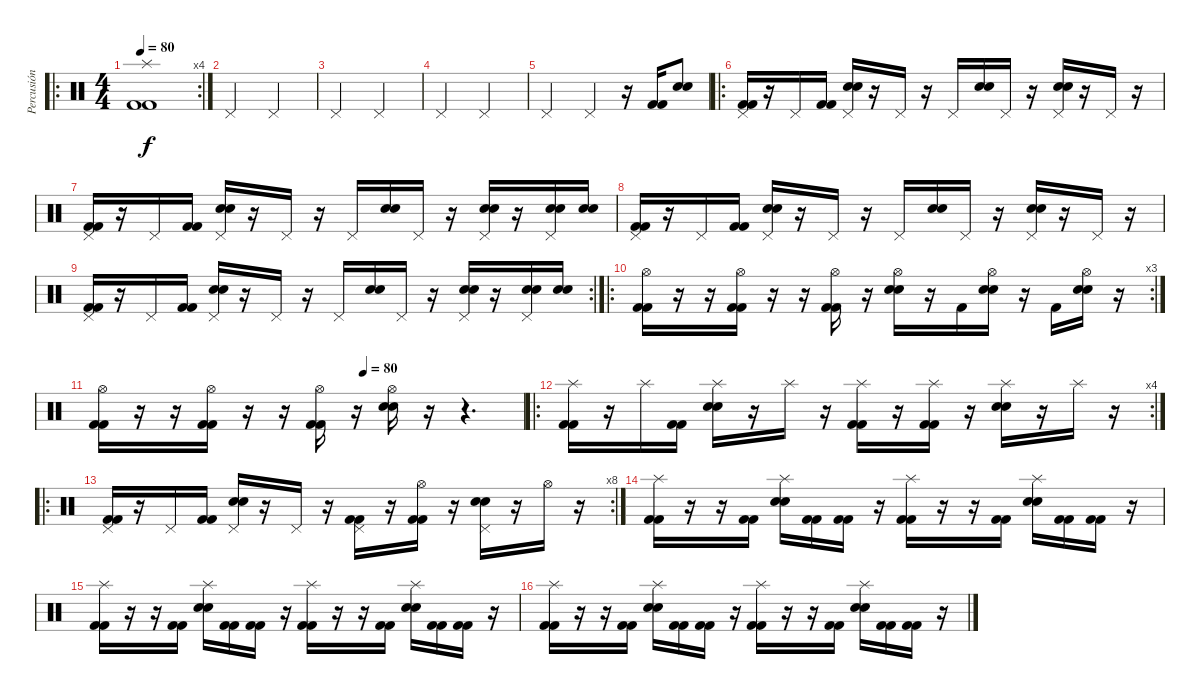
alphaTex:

\track ("Percusión" "Percusión") {instrument percussion}
\staff {score}
\articulation defaults
\ro
\rc 4
\ts (4 4)
\tempo 80
\tempo 115
\tempo 80
\clef neutral
\ks c
("Splash (hit)" "Kick (hit) 2" "Kick (hit) 2").1{dy f} |
"Pedal Hi-Hat (hit)".2 "Pedal Hi-Hat (hit)".2 |
"Pedal Hi-Hat (hit)".2 "Pedal Hi-Hat (hit)".2 |
"Pedal Hi-Hat (hit)".2 "Pedal Hi-Hat (hit)".2 |
"Pedal Hi-Hat (hit)".2 "Pedal Hi-Hat (hit)".4 r.16 ("Kick (hit) 2" "Kick (hit) 2").16 ("Electric Snare (hit)" "Electric Snare (hit)").8 |
\ro
("Pedal Hi-Hat (hit)" "Kick (hit) 2" "Kick (hit) 2").16 r.16 "Pedal Hi-Hat (hit)".16 ("Kick (hit) 2" "Kick (hit) 2").16 ("Pedal Hi-Hat (hit)" "Electric Snare (hit)" "Electric Snare (hit)").16 r.16 "Pedal Hi-Hat (hit)".16 r.16 "Pedal Hi-Hat (hit)".16 ("Electric Snare (hit)" "Electric Snare (hit)").16 "Pedal Hi-Hat (hit)".16 r.16 ("Pedal Hi-Hat (hit)" "Electric Snare (hit)" "Electric Snare (hit)").16 r.16 "Pedal Hi-Hat (hit)".16 r.16 |
("Pedal Hi-Hat (hit)" "Kick (hit) 2" "Kick (hit) 2").16 r.16 "Pedal Hi-Hat (hit)".16 ("Kick (hit) 2" "Kick (hit) 2").16 ("Pedal Hi-Hat (hit)" "Electric Snare (hit)" "Electric Snare (hit)").16 r.16 "Pedal Hi-Hat (hit)".16 r.16 "Pedal Hi-Hat (hit)".16 ("Electric Snare (hit)" "Electric Snare (hit)").16 "Pedal Hi-Hat (hit)".16 r.16 ("Pedal Hi-Hat (hit)" "Electric Snare (hit)" "Electric Snare (hit)").16 r.16 ("Pedal Hi-Hat (hit)" "Electric Snare (hit)" "Electric Snare (hit)").16 ("Electric Snare (hit)" "Electric Snare (hit)").16 |
("Pedal Hi-Hat (hit)" "Kick (hit) 2" "Kick (hit) 2").16 r.16 "Pedal Hi-Hat (hit)".16 ("Kick (hit) 2" "Kick (hit) 2").16 ("Pedal Hi-Hat (hit)" "Electric Snare (hit)" "Electric Snare (hit)").16 r.16 "Pedal Hi-Hat (hit)".16 r.16 "Pedal Hi-Hat (hit)".16 ("Electric Snare (hit)" "Electric Snare (hit)").16 "Pedal Hi-Hat (hit)".16 r.16 ("Pedal Hi-Hat (hit)" "Electric Snare (hit)" "Electric Snare (hit)").16 r.16 "Pedal Hi-Hat (hit)".16 r.16 |
\rc 2
("Pedal Hi-Hat (hit)" "Kick (hit) 2" "Kick (hit) 2").16 r.16 "Pedal Hi-Hat (hit)".16 ("Kick (hit) 2" "Kick (hit) 2").16 ("Pedal Hi-Hat (hit)" "Electric Snare (hit)" "Electric Snare (hit)").16 r.16 "Pedal Hi-Hat (hit)".16 r.16 "Pedal Hi-Hat (hit)".16 ("Electric Snare (hit)" "Electric Snare (hit)").16 "Pedal Hi-Hat (hit)".16 r.16 ("Pedal Hi-Hat (hit)" "Electric Snare (hit)" "Electric Snare (hit)").16 r.16 ("Pedal Hi-Hat (hit)" "Electric Snare (hit)" "Electric Snare (hit)").16 ("Electric Snare (hit)" "Electric Snare (hit)").16 |
\ro
\rc 3
("Hi-Hat (open)" "Kick (hit) 2" "Kick (hit) 2").16 r.16 r.16 ("Hi-Hat (open)" "Kick (hit) 2" "Kick (hit) 2").16 r.16 r.16 ("Hi-Hat (open)" "Kick (hit) 2" "Kick (hit) 2").16 r.16 ("Hi-Hat (open)" "Electric Snare (hit)" "Electric Snare (hit)").16 r.16 "Kick (hit) 2".16 ("Hi-Hat (open)" "Electric Snare (hit)" "Electric Snare (hit)").16 r.16 "Kick (hit) 2".16 ("Hi-Hat (open)" "Electric Snare (hit)" "Electric Snare (hit)").16 r.16 |
\tempo (80 0.625)
("Hi-Hat (open)" "Kick (hit) 2" "Kick (hit) 2").16 r.16 r.16 ("Hi-Hat (open)" "Kick (hit) 2" "Kick (hit) 2").16 r.16 r.16 ("Hi-Hat (open)" "Kick (hit) 2" "Kick (hit) 2").16 r.16 ("Hi-Hat (open)" "Electric Snare (hit)" "Electric Snare (hit)").16 r.16 r.4{d} |
\ro
\rc 4
("Splash (hit)" "Kick (hit) 2" "Kick (hit) 2").16 r.16 "Splash (hit)".16 ("Kick (hit) 2" "Kick (hit) 2").16 ("Splash (hit)" "Electric Snare (hit)" "Electric Snare (hit)").16 r.16 "Splash (hit)".16 r.16 ("Splash (hit)" "Kick (hit) 2" "Kick (hit) 2").16 r.16 ("Splash (hit)" "Kick (hit) 2" "Kick (hit) 2").16 r.16 ("Splash (hit)" "Electric Snare (hit)" "Electric Snare (hit)").16 r.16 "Splash (hit)".16 r.16 |
\ro
\rc 8
("Pedal Hi-Hat (hit)" "Kick (hit) 2" "Kick (hit) 2").16 r.16 "Pedal Hi-Hat (hit)".16 ("Kick (hit) 2" "Kick (hit) 2").16 ("Pedal Hi-Hat (hit)" "Electric Snare (hit)" "Electric Snare (hit)").16 r.16 "Pedal Hi-Hat (hit)".16 r.16 ("Pedal Hi-Hat (hit)" "Kick (hit) 2" "Kick (hit) 2").16 r.16 ("Hi-Hat (open)" "Kick (hit) 2" "Kick (hit) 2").16 r.16 ("Pedal Hi-Hat (hit)" "Electric Snare (hit)" "Electric Snare (hit)").16 r.16 "Hi-Hat (open)".16 r.16 |
("Splash (hit)" "Kick (hit) 2" "Kick (hit) 2").16 r.16 r.16 ("Kick (hit) 2" "Kick (hit) 2").16 ("Splash (hit)" "Electric Snare (hit)" "Electric Snare (hit)").16 ("Kick (hit) 2" "Kick (hit) 2").16 ("Kick (hit) 2" "Kick (hit) 2").16 r.16 ("Splash (hit)" "Kick (hit) 2" "Kick (hit) 2").16 r.16 r.16 ("Kick (hit) 2" "Kick (hit) 2").16 ("Splash (hit)" "Electric Snare (hit)" "Electric Snare (hit)").16 ("Kick (hit) 2" "Kick (hit) 2").16 ("Kick (hit) 2" "Kick (hit) 2").16 r.16 |
("Splash (hit)" "Kick (hit) 2" "Kick (hit) 2").16 r.16 r.16 ("Kick (hit) 2" "Kick (hit) 2").16 ("Splash (hit)" "Electric Snare (hit)" "Electric Snare (hit)").16 ("Kick (hit) 2" "Kick (hit) 2").16 ("Kick (hit) 2" "Kick (hit) 2").16 r.16 ("Splash (hit)" "Kick (hit) 2" "Kick (hit) 2").16 r.16 r.16 ("Kick (hit) 2" "Kick (hit) 2").16 ("Splash (hit)" "Electric Snare (hit)" "Electric Snare (hit)").16 ("Kick (hit) 2" "Kick (hit) 2").16 ("Kick (hit) 2" "Kick (hit) 2").16 r.16 |
("Splash (hit)" "Kick (hit) 2" "Kick (hit) 2").16 r.16 r.16 ("Kick (hit) 2" "Kick (hit) 2").16 ("Splash (hit)" "Electric Snare (hit)" "Electric Snare (hit)").16 ("Kick (hit) 2" "Kick (hit) 2").16 ("Kick (hit) 2" "Kick (hit) 2").16 r.16 ("Splash (hit)" "Kick (hit) 2" "Kick (hit) 2").16 r.16 r.16 ("Kick (hit) 2" "Kick (hit) 2").16 ("Splash (hit)" "Electric Snare (hit)" "Electric Snare (hit)").16 ("Kick (hit) 2" "Kick (hit) 2").16 ("Kick (hit) 2" "Kick (hit) 2").16 r.16
